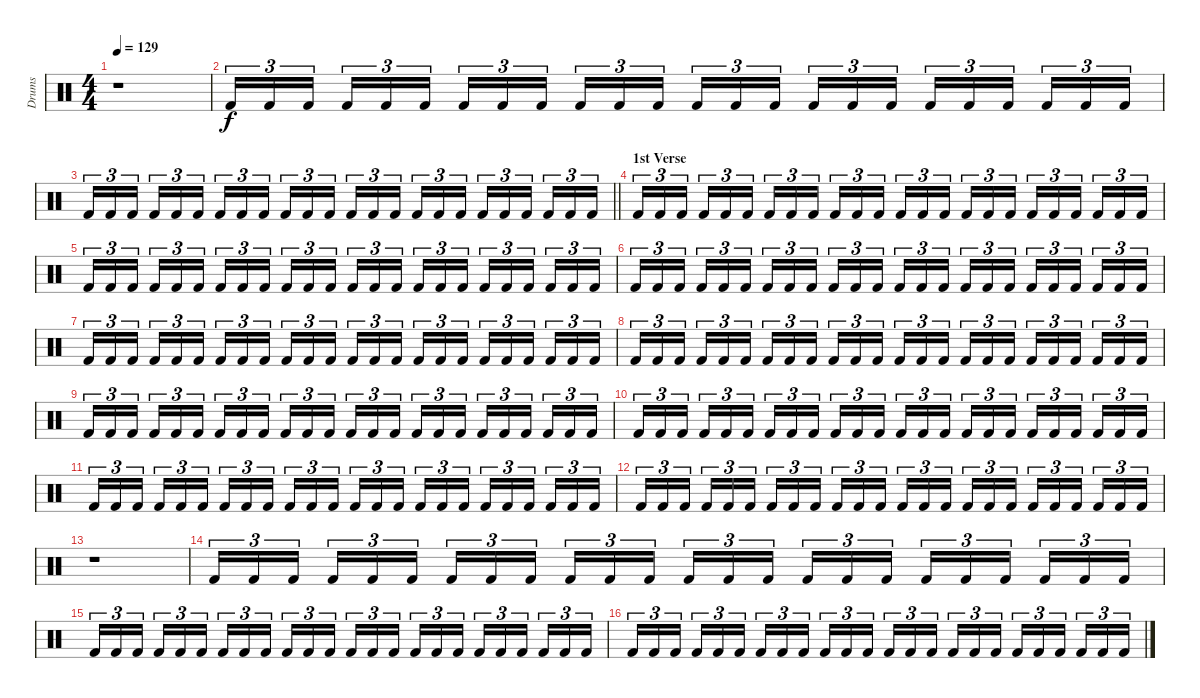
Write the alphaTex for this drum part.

\track ("Drums" "Drums") {instrument percussion}
\staff {score}
\articulation defaults
\ts (4 4)
\tempo 129
\clef neutral
\ks c
r.1{dy f} |
"Kick (hit) 2".16{tu (3 2)} "Kick (hit) 2".16{tu (3 2)} "Kick (hit) 2".16{tu (3 2) beam splitsecondary} "Kick (hit) 2".16{tu (3 2)} "Kick (hit) 2".16{tu (3 2)} "Kick (hit) 2".16{tu (3 2)} "Kick (hit) 2".16{tu (3 2)} "Kick (hit) 2".16{tu (3 2)} "Kick (hit) 2".16{tu (3 2) beam splitsecondary} "Kick (hit) 2".16{tu (3 2)} "Kick (hit) 2".16{tu (3 2)} "Kick (hit) 2".16{tu (3 2)} "Kick (hit) 2".16{tu (3 2)} "Kick (hit) 2".16{tu (3 2)} "Kick (hit) 2".16{tu (3 2) beam splitsecondary} "Kick (hit) 2".16{tu (3 2)} "Kick (hit) 2".16{tu (3 2)} "Kick (hit) 2".16{tu (3 2)} "Kick (hit) 2".16{tu (3 2)} "Kick (hit) 2".16{tu (3 2)} "Kick (hit) 2".16{tu (3 2) beam splitsecondary} "Kick (hit) 2".16{tu (3 2)} "Kick (hit) 2".16{tu (3 2)} "Kick (hit) 2".16{tu (3 2)} |
\barLineRight lightlight "Kick (hit) 2".16{tu (3 2)} "Kick (hit) 2".16{tu (3 2)} "Kick (hit) 2".16{tu (3 2) beam splitsecondary} "Kick (hit) 2".16{tu (3 2)} "Kick (hit) 2".16{tu (3 2)} "Kick (hit) 2".16{tu (3 2)} "Kick (hit) 2".16{tu (3 2)} "Kick (hit) 2".16{tu (3 2)} "Kick (hit) 2".16{tu (3 2) beam splitsecondary} "Kick (hit) 2".16{tu (3 2)} "Kick (hit) 2".16{tu (3 2)} "Kick (hit) 2".16{tu (3 2)} "Kick (hit) 2".16{tu (3 2)} "Kick (hit) 2".16{tu (3 2)} "Kick (hit) 2".16{tu (3 2) beam splitsecondary} "Kick (hit) 2".16{tu (3 2)} "Kick (hit) 2".16{tu (3 2)} "Kick (hit) 2".16{tu (3 2)} "Kick (hit) 2".16{tu (3 2)} "Kick (hit) 2".16{tu (3 2)} "Kick (hit) 2".16{tu (3 2) beam splitsecondary} "Kick (hit) 2".16{tu (3 2)} "Kick (hit) 2".16{tu (3 2)} "Kick (hit) 2".16{tu (3 2)}
|
\section ("" "1st Verse")
"Kick (hit) 2".16{tu (3 2)} "Kick (hit) 2".16{tu (3 2)} "Kick (hit) 2".16{tu (3 2) beam splitsecondary} "Kick (hit) 2".16{tu (3 2)} "Kick (hit) 2".16{tu (3 2)} "Kick (hit) 2".16{tu (3 2)} "Kick (hit) 2".16{tu (3 2)} "Kick (hit) 2".16{tu (3 2)} "Kick (hit) 2".16{tu (3 2) beam splitsecondary} "Kick (hit) 2".16{tu (3 2)} "Kick (hit) 2".16{tu (3 2)} "Kick (hit) 2".16{tu (3 2)} "Kick (hit) 2".16{tu (3 2)} "Kick (hit) 2".16{tu (3 2)} "Kick (hit) 2".16{tu (3 2) beam splitsecondary} "Kick (hit) 2".16{tu (3 2)} "Kick (hit) 2".16{tu (3 2)} "Kick (hit) 2".16{tu (3 2)} "Kick (hit) 2".16{tu (3 2)} "Kick (hit) 2".16{tu (3 2)} "Kick (hit) 2".16{tu (3 2) beam splitsecondary} "Kick (hit) 2".16{tu (3 2)} "Kick (hit) 2".16{tu (3 2)} "Kick (hit) 2".16{tu (3 2)} |
"Kick (hit) 2".16{tu (3 2)} "Kick (hit) 2".16{tu (3 2)} "Kick (hit) 2".16{tu (3 2) beam splitsecondary} "Kick (hit) 2".16{tu (3 2)} "Kick (hit) 2".16{tu (3 2)} "Kick (hit) 2".16{tu (3 2)} "Kick (hit) 2".16{tu (3 2)} "Kick (hit) 2".16{tu (3 2)} "Kick (hit) 2".16{tu (3 2) beam splitsecondary} "Kick (hit) 2".16{tu (3 2)} "Kick (hit) 2".16{tu (3 2)} "Kick (hit) 2".16{tu (3 2)} "Kick (hit) 2".16{tu (3 2)} "Kick (hit) 2".16{tu (3 2)} "Kick (hit) 2".16{tu (3 2) beam splitsecondary} "Kick (hit) 2".16{tu (3 2)} "Kick (hit) 2".16{tu (3 2)} "Kick (hit) 2".16{tu (3 2)} "Kick (hit) 2".16{tu (3 2)} "Kick (hit) 2".16{tu (3 2)} "Kick (hit) 2".16{tu (3 2) beam splitsecondary} "Kick (hit) 2".16{tu (3 2)} "Kick (hit) 2".16{tu (3 2)} "Kick (hit) 2".16{tu (3 2)} |
"Kick (hit) 2".16{tu (3 2)} "Kick (hit) 2".16{tu (3 2)} "Kick (hit) 2".16{tu (3 2) beam splitsecondary} "Kick (hit) 2".16{tu (3 2)} "Kick (hit) 2".16{tu (3 2)} "Kick (hit) 2".16{tu (3 2)} "Kick (hit) 2".16{tu (3 2)} "Kick (hit) 2".16{tu (3 2)} "Kick (hit) 2".16{tu (3 2) beam splitsecondary} "Kick (hit) 2".16{tu (3 2)} "Kick (hit) 2".16{tu (3 2)} "Kick (hit) 2".16{tu (3 2)} "Kick (hit) 2".16{tu (3 2)} "Kick (hit) 2".16{tu (3 2)} "Kick (hit) 2".16{tu (3 2) beam splitsecondary} "Kick (hit) 2".16{tu (3 2)} "Kick (hit) 2".16{tu (3 2)} "Kick (hit) 2".16{tu (3 2)} "Kick (hit) 2".16{tu (3 2)} "Kick (hit) 2".16{tu (3 2)} "Kick (hit) 2".16{tu (3 2) beam splitsecondary} "Kick (hit) 2".16{tu (3 2)} "Kick (hit) 2".16{tu (3 2)} "Kick (hit) 2".16{tu (3 2)} |
"Kick (hit) 2".16{tu (3 2)} "Kick (hit) 2".16{tu (3 2)} "Kick (hit) 2".16{tu (3 2) beam splitsecondary} "Kick (hit) 2".16{tu (3 2)} "Kick (hit) 2".16{tu (3 2)} "Kick (hit) 2".16{tu (3 2)} "Kick (hit) 2".16{tu (3 2)} "Kick (hit) 2".16{tu (3 2)} "Kick (hit) 2".16{tu (3 2) beam splitsecondary} "Kick (hit) 2".16{tu (3 2)} "Kick (hit) 2".16{tu (3 2)} "Kick (hit) 2".16{tu (3 2)} "Kick (hit) 2".16{tu (3 2)} "Kick (hit) 2".16{tu (3 2)} "Kick (hit) 2".16{tu (3 2) beam splitsecondary} "Kick (hit) 2".16{tu (3 2)} "Kick (hit) 2".16{tu (3 2)} "Kick (hit) 2".16{tu (3 2)} "Kick (hit) 2".16{tu (3 2)} "Kick (hit) 2".16{tu (3 2)} "Kick (hit) 2".16{tu (3 2) beam splitsecondary} "Kick (hit) 2".16{tu (3 2)} "Kick (hit) 2".16{tu (3 2)} "Kick (hit) 2".16{tu (3 2)} |
"Kick (hit) 2".16{tu (3 2)} "Kick (hit) 2".16{tu (3 2)} "Kick (hit) 2".16{tu (3 2) beam splitsecondary} "Kick (hit) 2".16{tu (3 2)} "Kick (hit) 2".16{tu (3 2)} "Kick (hit) 2".16{tu (3 2)} "Kick (hit) 2".16{tu (3 2)} "Kick (hit) 2".16{tu (3 2)} "Kick (hit) 2".16{tu (3 2) beam splitsecondary} "Kick (hit) 2".16{tu (3 2)} "Kick (hit) 2".16{tu (3 2)} "Kick (hit) 2".16{tu (3 2)} "Kick (hit) 2".16{tu (3 2)} "Kick (hit) 2".16{tu (3 2)} "Kick (hit) 2".16{tu (3 2) beam splitsecondary} "Kick (hit) 2".16{tu (3 2)} "Kick (hit) 2".16{tu (3 2)} "Kick (hit) 2".16{tu (3 2)} "Kick (hit) 2".16{tu (3 2)} "Kick (hit) 2".16{tu (3 2)} "Kick (hit) 2".16{tu (3 2) beam splitsecondary} "Kick (hit) 2".16{tu (3 2)} "Kick (hit) 2".16{tu (3 2)} "Kick (hit) 2".16{tu (3 2)} |
"Kick (hit) 2".16{tu (3 2)} "Kick (hit) 2".16{tu (3 2)} "Kick (hit) 2".16{tu (3 2) beam splitsecondary} "Kick (hit) 2".16{tu (3 2)} "Kick (hit) 2".16{tu (3 2)} "Kick (hit) 2".16{tu (3 2)} "Kick (hit) 2".16{tu (3 2)} "Kick (hit) 2".16{tu (3 2)} "Kick (hit) 2".16{tu (3 2) beam splitsecondary} "Kick (hit) 2".16{tu (3 2)} "Kick (hit) 2".16{tu (3 2)} "Kick (hit) 2".16{tu (3 2)} "Kick (hit) 2".16{tu (3 2)} "Kick (hit) 2".16{tu (3 2)} "Kick (hit) 2".16{tu (3 2) beam splitsecondary} "Kick (hit) 2".16{tu (3 2)} "Kick (hit) 2".16{tu (3 2)} "Kick (hit) 2".16{tu (3 2)} "Kick (hit) 2".16{tu (3 2)} "Kick (hit) 2".16{tu (3 2)} "Kick (hit) 2".16{tu (3 2) beam splitsecondary} "Kick (hit) 2".16{tu (3 2)} "Kick (hit) 2".16{tu (3 2)} "Kick (hit) 2".16{tu (3 2)} |
"Kick (hit) 2".16{tu (3 2)} "Kick (hit) 2".16{tu (3 2)} "Kick (hit) 2".16{tu (3 2) beam splitsecondary} "Kick (hit) 2".16{tu (3 2)} "Kick (hit) 2".16{tu (3 2)} "Kick (hit) 2".16{tu (3 2)} "Kick (hit) 2".16{tu (3 2)} "Kick (hit) 2".16{tu (3 2)} "Kick (hit) 2".16{tu (3 2) beam splitsecondary} "Kick (hit) 2".16{tu (3 2)} "Kick (hit) 2".16{tu (3 2)} "Kick (hit) 2".16{tu (3 2)} "Kick (hit) 2".16{tu (3 2)} "Kick (hit) 2".16{tu (3 2)} "Kick (hit) 2".16{tu (3 2) beam splitsecondary} "Kick (hit) 2".16{tu (3 2)} "Kick (hit) 2".16{tu (3 2)} "Kick (hit) 2".16{tu (3 2)} "Kick (hit) 2".16{tu (3 2)} "Kick (hit) 2".16{tu (3 2)} "Kick (hit) 2".16{tu (3 2) beam splitsecondary} "Kick (hit) 2".16{tu (3 2)} "Kick (hit) 2".16{tu (3 2)} "Kick (hit) 2".16{tu (3 2)} |
"Kick (hit) 2".16{tu (3 2)} "Kick (hit) 2".16{tu (3 2)} "Kick (hit) 2".16{tu (3 2) beam splitsecondary} "Kick (hit) 2".16{tu (3 2)} "Kick (hit) 2".16{tu (3 2)} "Kick (hit) 2".16{tu (3 2)} "Kick (hit) 2".16{tu (3 2)} "Kick (hit) 2".16{tu (3 2)} "Kick (hit) 2".16{tu (3 2) beam splitsecondary} "Kick (hit) 2".16{tu (3 2)} "Kick (hit) 2".16{tu (3 2)} "Kick (hit) 2".16{tu (3 2)} "Kick (hit) 2".16{tu (3 2)} "Kick (hit) 2".16{tu (3 2)} "Kick (hit) 2".16{tu (3 2) beam splitsecondary} "Kick (hit) 2".16{tu (3 2)} "Kick (hit) 2".16{tu (3 2)} "Kick (hit) 2".16{tu (3 2)} "Kick (hit) 2".16{tu (3 2)} "Kick (hit) 2".16{tu (3 2)} "Kick (hit) 2".16{tu (3 2) beam splitsecondary} "Kick (hit) 2".16{tu (3 2)} "Kick (hit) 2".16{tu (3 2)} "Kick (hit) 2".16{tu (3 2)} |
"Kick (hit) 2".16{tu (3 2)} "Kick (hit) 2".16{tu (3 2)} "Kick (hit) 2".16{tu (3 2) beam splitsecondary} "Kick (hit) 2".16{tu (3 2)} "Kick (hit) 2".16{tu (3 2)} "Kick (hit) 2".16{tu (3 2)} "Kick (hit) 2".16{tu (3 2)} "Kick (hit) 2".16{tu (3 2)} "Kick (hit) 2".16{tu (3 2) beam splitsecondary} "Kick (hit) 2".16{tu (3 2)} "Kick (hit) 2".16{tu (3 2)} "Kick (hit) 2".16{tu (3 2)} "Kick (hit) 2".16{tu (3 2)} "Kick (hit) 2".16{tu (3 2)} "Kick (hit) 2".16{tu (3 2) beam splitsecondary} "Kick (hit) 2".16{tu (3 2)} "Kick (hit) 2".16{tu (3 2)} "Kick (hit) 2".16{tu (3 2)} "Kick (hit) 2".16{tu (3 2)} "Kick (hit) 2".16{tu (3 2)} "Kick (hit) 2".16{tu (3 2) beam splitsecondary} "Kick (hit) 2".16{tu (3 2)} "Kick (hit) 2".16{tu (3 2)} "Kick (hit) 2".16{tu (3 2)} |
r.1 |
"Kick (hit) 2".16{tu (3 2)} "Kick (hit) 2".16{tu (3 2)} "Kick (hit) 2".16{tu (3 2) beam splitsecondary} "Kick (hit) 2".16{tu (3 2)} "Kick (hit) 2".16{tu (3 2)} "Kick (hit) 2".16{tu (3 2)} "Kick (hit) 2".16{tu (3 2)} "Kick (hit) 2".16{tu (3 2)} "Kick (hit) 2".16{tu (3 2) beam splitsecondary} "Kick (hit) 2".16{tu (3 2)} "Kick (hit) 2".16{tu (3 2)} "Kick (hit) 2".16{tu (3 2)} "Kick (hit) 2".16{tu (3 2)} "Kick (hit) 2".16{tu (3 2)} "Kick (hit) 2".16{tu (3 2) beam splitsecondary} "Kick (hit) 2".16{tu (3 2)} "Kick (hit) 2".16{tu (3 2)} "Kick (hit) 2".16{tu (3 2)} "Kick (hit) 2".16{tu (3 2)} "Kick (hit) 2".16{tu (3 2)} "Kick (hit) 2".16{tu (3 2) beam splitsecondary} "Kick (hit) 2".16{tu (3 2)} "Kick (hit) 2".16{tu (3 2)} "Kick (hit) 2".16{tu (3 2)} |
"Kick (hit) 2".16{tu (3 2)} "Kick (hit) 2".16{tu (3 2)} "Kick (hit) 2".16{tu (3 2) beam splitsecondary} "Kick (hit) 2".16{tu (3 2)} "Kick (hit) 2".16{tu (3 2)} "Kick (hit) 2".16{tu (3 2)} "Kick (hit) 2".16{tu (3 2)} "Kick (hit) 2".16{tu (3 2)} "Kick (hit) 2".16{tu (3 2) beam splitsecondary} "Kick (hit) 2".16{tu (3 2)} "Kick (hit) 2".16{tu (3 2)} "Kick (hit) 2".16{tu (3 2)} "Kick (hit) 2".16{tu (3 2)} "Kick (hit) 2".16{tu (3 2)} "Kick (hit) 2".16{tu (3 2) beam splitsecondary} "Kick (hit) 2".16{tu (3 2)} "Kick (hit) 2".16{tu (3 2)} "Kick (hit) 2".16{tu (3 2)} "Kick (hit) 2".16{tu (3 2)} "Kick (hit) 2".16{tu (3 2)} "Kick (hit) 2".16{tu (3 2) beam splitsecondary} "Kick (hit) 2".16{tu (3 2)} "Kick (hit) 2".16{tu (3 2)} "Kick (hit) 2".16{tu (3 2)} |
"Kick (hit) 2".16{tu (3 2)} "Kick (hit) 2".16{tu (3 2)} "Kick (hit) 2".16{tu (3 2) beam splitsecondary} "Kick (hit) 2".16{tu (3 2)} "Kick (hit) 2".16{tu (3 2)} "Kick (hit) 2".16{tu (3 2)} "Kick (hit) 2".16{tu (3 2)} "Kick (hit) 2".16{tu (3 2)} "Kick (hit) 2".16{tu (3 2) beam splitsecondary} "Kick (hit) 2".16{tu (3 2)} "Kick (hit) 2".16{tu (3 2)} "Kick (hit) 2".16{tu (3 2)} "Kick (hit) 2".16{tu (3 2)} "Kick (hit) 2".16{tu (3 2)} "Kick (hit) 2".16{tu (3 2) beam splitsecondary} "Kick (hit) 2".16{tu (3 2)} "Kick (hit) 2".16{tu (3 2)} "Kick (hit) 2".16{tu (3 2)} "Kick (hit) 2".16{tu (3 2)} "Kick (hit) 2".16{tu (3 2)} "Kick (hit) 2".16{tu (3 2) beam splitsecondary} "Kick (hit) 2".16{tu (3 2)} "Kick (hit) 2".16{tu (3 2)} "Kick (hit) 2".16{tu (3 2)}
